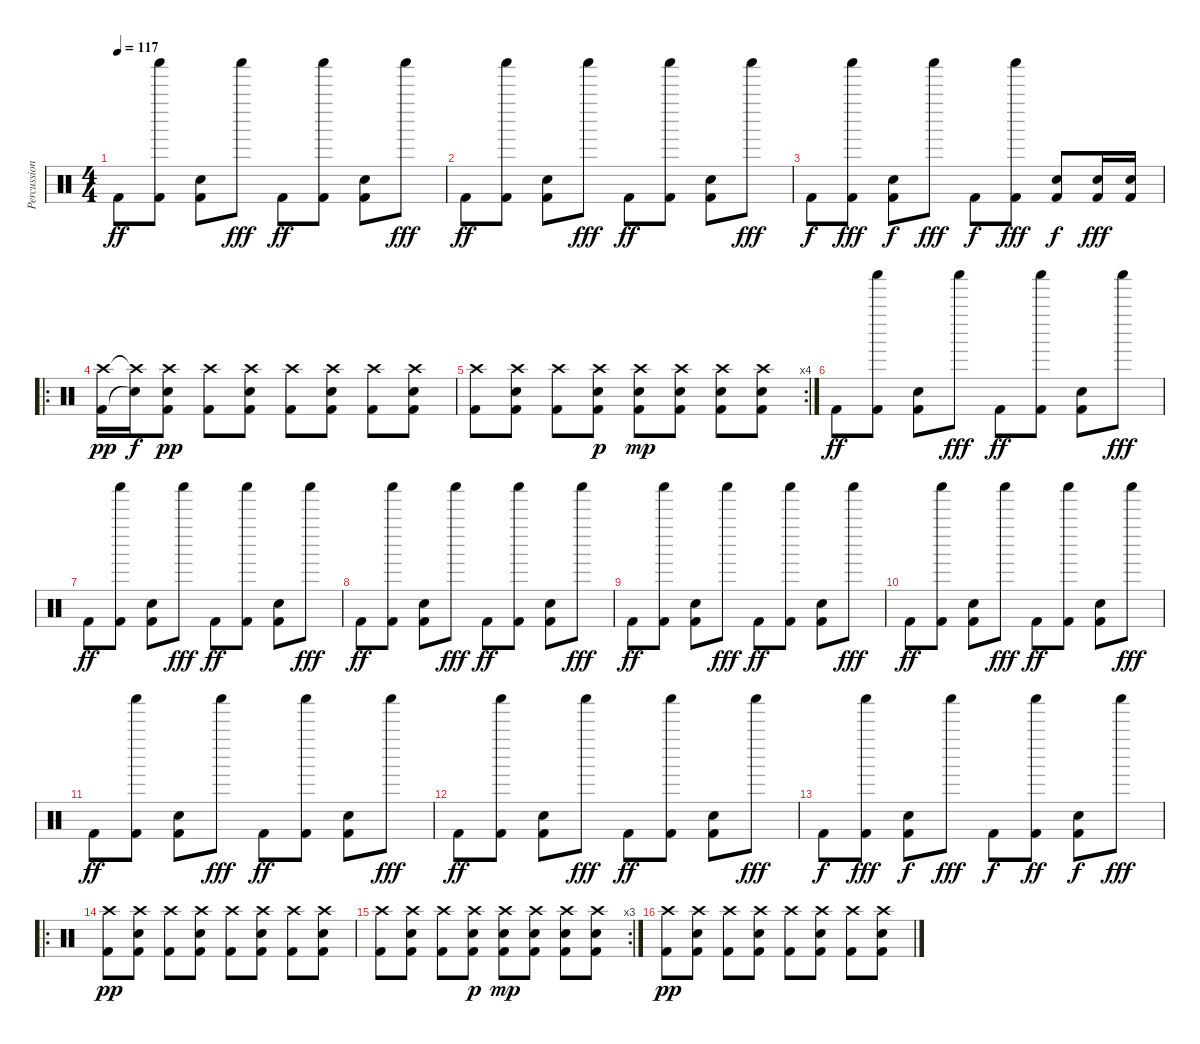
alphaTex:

\track ("Percussioni" "Percussion") {instrument percussion}
\staff {score}
\articulation defaults
\ts (4 4)
\tempo 117
\clef neutral
\ks c "Kick (hit) 2".8{dy ff}
("Shaker (hit)" "Kick (hit) 2").8 ("Electric Snare (hit)" "Kick (hit) 2").8 "Shaker (hit)".8{dy fff} "Kick (hit) 2".8{dy ff} ("Shaker (hit)" "Kick (hit) 2").8 ("Electric Snare (hit)" "Kick (hit) 2").8 "Shaker (hit)".8{dy fff} |
"Kick (hit) 2".8{dy ff} ("Shaker (hit)" "Kick (hit) 2").8 ("Electric Snare (hit)" "Kick (hit) 2").8 "Shaker (hit)".8{dy fff} "Kick (hit) 2".8{dy ff} ("Shaker (hit)" "Kick (hit) 2").8 ("Electric Snare (hit)" "Kick (hit) 2").8 "Shaker (hit)".8{dy fff} |
"Kick (hit) 2".8{dy f} ("Shaker (hit)" "Kick (hit) 2").8{dy fff} ("Electric Snare (hit)" "Kick (hit) 2").8{dy f} "Shaker (hit)".8{dy fff} "Kick (hit) 2".8{dy f} ("Shaker (hit)" "Kick (hit) 2").8{dy fff} ("Electric Snare (hit)" "Kick (hit) 2").8{dy f} ("Electric Snare (hit)" "Kick (hit) 2").16{dy fff} ("Electric Snare (hit)" "Kick (hit) 2").16 |
\ro
("Crash high (hit)" "Kick (hit) 2").16{dy pp} ("Crash high (hit)"{t} "Snare (hit)"{t}).16{dy f} ("Crash high (hit)" "Electric Snare (hit)" "Kick (hit) 2").8{dy pp} ("Crash high (hit)" "Kick (hit) 2").8 ("Crash high (hit)" "Electric Snare (hit)" "Kick (hit) 2").8 ("Crash high (hit)" "Kick (hit) 2").8 ("Crash high (hit)" "Electric Snare (hit)" "Kick (hit) 2").8 ("Crash high (hit)" "Kick (hit) 2").8 ("Crash high (hit)" "Electric Snare (hit)" "Kick (hit) 2").8 |
\rc 4
("Crash high (hit)" "Kick (hit) 2").8 ("Crash high (hit)" "Electric Snare (hit)" "Kick (hit) 2").8 ("Crash high (hit)" "Kick (hit) 2").8 ("Crash high (hit)" "Electric Snare (hit)" "Kick (hit) 2").8{dy p} ("Crash high (hit)" "Electric Snare (hit)" "Kick (hit) 2").8{dy mp} ("Crash high (hit)" "Electric Snare (hit)" "Kick (hit) 2").8 ("Crash high (hit)" "Electric Snare (hit)" "Kick (hit) 2").8 ("Crash high (hit)" "Electric Snare (hit)" "Kick (hit) 2").8 |
"Kick (hit) 2".8{dy ff} ("Shaker (hit)" "Kick (hit) 2").8 ("Electric Snare (hit)" "Kick (hit) 2").8 "Shaker (hit)".8{dy fff} "Kick (hit) 2".8{dy ff} ("Shaker (hit)" "Kick (hit) 2").8 ("Electric Snare (hit)" "Kick (hit) 2").8 "Shaker (hit)".8{dy fff} |
"Kick (hit) 2".8{dy ff} ("Shaker (hit)" "Kick (hit) 2").8 ("Electric Snare (hit)" "Kick (hit) 2").8 "Shaker (hit)".8{dy fff} "Kick (hit) 2".8{dy ff} ("Shaker (hit)" "Kick (hit) 2").8 ("Electric Snare (hit)" "Kick (hit) 2").8 "Shaker (hit)".8{dy fff} |
"Kick (hit) 2".8{dy ff} ("Shaker (hit)" "Kick (hit) 2").8 ("Electric Snare (hit)" "Kick (hit) 2").8 "Shaker (hit)".8{dy fff} "Kick (hit) 2".8{dy ff} ("Shaker (hit)" "Kick (hit) 2").8 ("Electric Snare (hit)" "Kick (hit) 2").8 "Shaker (hit)".8{dy fff} |
"Kick (hit) 2".8{dy ff} ("Shaker (hit)" "Kick (hit) 2").8 ("Electric Snare (hit)" "Kick (hit) 2").8 "Shaker (hit)".8{dy fff} "Kick (hit) 2".8{dy ff} ("Shaker (hit)" "Kick (hit) 2").8 ("Electric Snare (hit)" "Kick (hit) 2").8 "Shaker (hit)".8{dy fff} |
"Kick (hit) 2".8{dy ff} ("Shaker (hit)" "Kick (hit) 2").8 ("Electric Snare (hit)" "Kick (hit) 2").8 "Shaker (hit)".8{dy fff} "Kick (hit) 2".8{dy ff} ("Shaker (hit)" "Kick (hit) 2").8 ("Electric Snare (hit)" "Kick (hit) 2").8 "Shaker (hit)".8{dy fff} |
"Kick (hit) 2".8{dy ff} ("Shaker (hit)" "Kick (hit) 2").8 ("Electric Snare (hit)" "Kick (hit) 2").8 "Shaker (hit)".8{dy fff} "Kick (hit) 2".8{dy ff} ("Shaker (hit)" "Kick (hit) 2").8 ("Electric Snare (hit)" "Kick (hit) 2").8 "Shaker (hit)".8{dy fff} |
"Kick (hit) 2".8{dy ff} ("Shaker (hit)" "Kick (hit) 2").8 ("Electric Snare (hit)" "Kick (hit) 2").8 "Shaker (hit)".8{dy fff} "Kick (hit) 2".8{dy ff} ("Shaker (hit)" "Kick (hit) 2").8 ("Electric Snare (hit)" "Kick (hit) 2").8 "Shaker (hit)".8{dy fff} |
"Kick (hit) 2".8{dy f} ("Shaker (hit)" "Kick (hit) 2").8{dy fff} ("Electric Snare (hit)" "Kick (hit) 2").8{dy f} "Shaker (hit)".8{dy fff} "Kick (hit) 2".8{dy f} ("Shaker (hit)" "Kick (hit) 2").8{dy ff} ("Electric Snare (hit)" "Kick (hit) 2").8{dy f} "Shaker (hit)".8{dy fff} |
\ro
("Crash high (hit)" "Kick (hit) 2").8{dy pp} ("Crash high (hit)" "Electric Snare (hit)" "Kick (hit) 2").8 ("Crash high (hit)" "Kick (hit) 2").8 ("Crash high (hit)" "Electric Snare (hit)" "Kick (hit) 2").8 ("Crash high (hit)" "Kick (hit) 2").8 ("Crash high (hit)" "Electric Snare (hit)" "Kick (hit) 2").8 ("Crash high (hit)" "Kick (hit) 2").8 ("Crash high (hit)" "Electric Snare (hit)" "Kick (hit) 2").8 |
\rc 3
("Crash high (hit)" "Kick (hit) 2").8 ("Crash high (hit)" "Electric Snare (hit)" "Kick (hit) 2").8 ("Crash high (hit)" "Kick (hit) 2").8 ("Crash high (hit)" "Electric Snare (hit)" "Kick (hit) 2").8{dy p} ("Crash high (hit)" "Electric Snare (hit)" "Kick (hit) 2").8{dy mp} ("Crash high (hit)" "Electric Snare (hit)" "Kick (hit) 2").8 ("Crash high (hit)" "Electric Snare (hit)" "Kick (hit) 2").8 ("Crash high (hit)" "Electric Snare (hit)" "Kick (hit) 2").8 |
("Crash high (hit)" "Kick (hit) 2").8{dy pp} ("Crash high (hit)" "Electric Snare (hit)" "Kick (hit) 2").8 ("Crash high (hit)" "Kick (hit) 2").8 ("Crash high (hit)" "Electric Snare (hit)" "Kick (hit) 2").8 ("Crash high (hit)" "Kick (hit) 2").8 ("Crash high (hit)" "Electric Snare (hit)" "Kick (hit) 2").8 ("Crash high (hit)" "Kick (hit) 2").8 ("Crash high (hit)" "Electric Snare (hit)" "Kick (hit) 2").8
